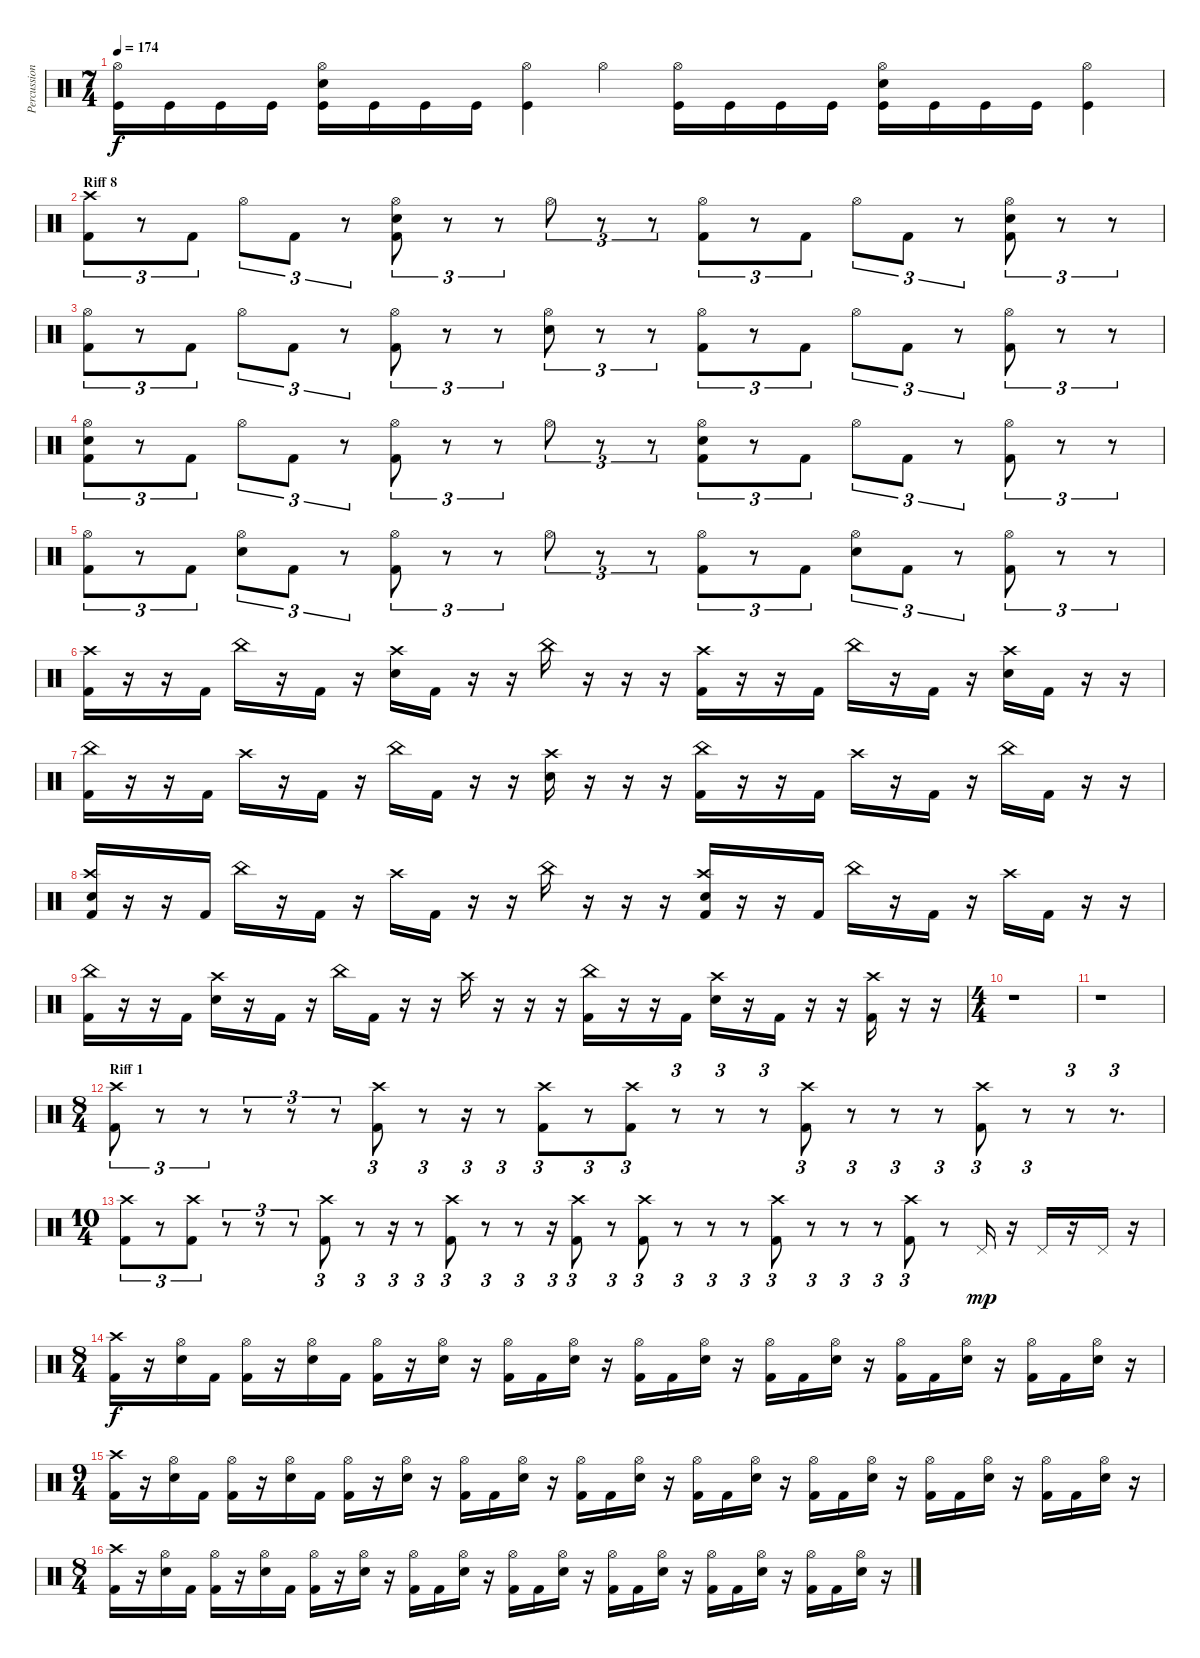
\track ("Percussion" "Percussion") {instrument percussion}
\staff {score}
\articulation defaults
\ts (7 4)
\tempo 174
\clef neutral
\ks c
("Hi-Hat (open)" "Kick (hit)").16{dy f} "Kick (hit)".16 "Kick (hit)".16 "Kick (hit)".16 ("Hi-Hat (open)" "Electric Snare (hit)" "Kick (hit)").16 "Kick (hit)".16 "Kick (hit)".16 "Kick (hit)".16 ("Hi-Hat (open)" "Kick (hit)").4 "Hi-Hat (open)".4 ("Hi-Hat (open)" "Kick (hit)").16 "Kick (hit)".16 "Kick (hit)".16 "Kick (hit)".16 ("Hi-Hat (open)" "Electric Snare (hit)" "Kick (hit)").16 "Kick (hit)".16 "Kick (hit)".16 "Kick (hit)".16 ("Hi-Hat (open)" "Kick (hit)").4 |
\section ("" "Riff 8")
("Crash high (hit)" "Kick (hit) 2").8{tu (3 2)} r.8{tu (3 2)} "Kick (hit) 2".8{tu (3 2)} "Hi-Hat (open)".8{tu (3 2)} "Kick (hit) 2".8{tu (3 2)} r.8{tu (3 2)} ("Hi-Hat (open)" "Electric Snare (hit)" "Kick (hit) 2").8{tu (3 2)} r.8{tu (3 2)} r.8{tu (3 2)} "Hi-Hat (open)".8{tu (3 2)} r.8{tu (3 2)} r.8{tu (3 2)} ("Hi-Hat (open)" "Kick (hit) 2").8{tu (3 2)} r.8{tu (3 2)} "Kick (hit) 2".8{tu (3 2)} "Hi-Hat (open)".8{tu (3 2)} "Kick (hit) 2".8{tu (3 2)} r.8{tu (3 2)} ("Hi-Hat (open)" "Electric Snare (hit)" "Kick (hit) 2").8{tu (3 2)} r.8{tu (3 2)} r.8{tu (3 2)} |
("Hi-Hat (open)" "Kick (hit) 2").8{tu (3 2)} r.8{tu (3 2)} "Kick (hit) 2".8{tu (3 2)} "Hi-Hat (open)".8{tu (3 2)} "Kick (hit) 2".8{tu (3 2)} r.8{tu (3 2)} ("Hi-Hat (open)" "Kick (hit) 2").8{tu (3 2)} r.8{tu (3 2)} r.8{tu (3 2)} ("Hi-Hat (open)" "Electric Snare (hit)").8{tu (3 2)} r.8{tu (3 2)} r.8{tu (3 2)} ("Hi-Hat (open)" "Kick (hit) 2").8{tu (3 2)} r.8{tu (3 2)} "Kick (hit) 2".8{tu (3 2)} "Hi-Hat (open)".8{tu (3 2)} "Kick (hit) 2".8{tu (3 2)} r.8{tu (3 2)} ("Hi-Hat (open)" "Kick (hit) 2").8{tu (3 2)} r.8{tu (3 2)} r.8{tu (3 2)} |
("Hi-Hat (open)" "Electric Snare (hit)" "Kick (hit) 2").8{tu (3 2)} r.8{tu (3 2)} "Kick (hit) 2".8{tu (3 2)} "Hi-Hat (open)".8{tu (3 2)} "Kick (hit) 2".8{tu (3 2)} r.8{tu (3 2)} ("Hi-Hat (open)" "Kick (hit) 2").8{tu (3 2)} r.8{tu (3 2)} r.8{tu (3 2)} "Hi-Hat (open)".8{tu (3 2)} r.8{tu (3 2)} r.8{tu (3 2)} ("Hi-Hat (open)" "Electric Snare (hit)" "Kick (hit) 2").8{tu (3 2)} r.8{tu (3 2)} "Kick (hit) 2".8{tu (3 2)} "Hi-Hat (open)".8{tu (3 2)} "Kick (hit) 2".8{tu (3 2)} r.8{tu (3 2)} ("Hi-Hat (open)" "Kick (hit) 2").8{tu (3 2)} r.8{tu (3 2)} r.8{tu (3 2)} |
("Hi-Hat (open)" "Kick (hit) 2").8{tu (3 2)} r.8{tu (3 2)} "Kick (hit) 2".8{tu (3 2)} ("Hi-Hat (open)" "Electric Snare (hit)").8{tu (3 2)} "Kick (hit) 2".8{tu (3 2)} r.8{tu (3 2)} ("Hi-Hat (open)" "Kick (hit) 2").8{tu (3 2)} r.8{tu (3 2)} r.8{tu (3 2)} "Hi-Hat (open)".8{tu (3 2)} r.8{tu (3 2)} r.8{tu (3 2)} ("Hi-Hat (open)" "Kick (hit) 2").8{tu (3 2)} r.8{tu (3 2)} "Kick (hit) 2".8{tu (3 2)} ("Hi-Hat (open)" "Electric Snare (hit)").8{tu (3 2)} "Kick (hit) 2".8{tu (3 2)} r.8{tu (3 2)} ("Hi-Hat (open)" "Kick (hit) 2").8{tu (3 2)} r.8{tu (3 2)} r.8{tu (3 2)} |
("Crash high (hit)" "Kick (hit) 2").16 r.16 r.16 "Kick (hit) 2".16 "China (hit)".16 r.16 "Kick (hit) 2".16 r.16 ("Crash high (hit)" "Electric Snare (hit)").16 "Kick (hit) 2".16 r.16 r.16 "China (hit)".16 r.16 r.16 r.16 ("Crash high (hit)" "Kick (hit) 2").16 r.16 r.16 "Kick (hit) 2".16 "China (hit)".16 r.16 "Kick (hit) 2".16 r.16 ("Crash high (hit)" "Electric Snare (hit)").16 "Kick (hit) 2".16 r.16 r.16 |
("China (hit)" "Kick (hit) 2").16 r.16 r.16 "Kick (hit) 2".16 "Crash high (hit)".16 r.16 "Kick (hit) 2".16 r.16 "China (hit)".16 "Kick (hit) 2".16 r.16 r.16 ("Crash high (hit)" "Electric Snare (hit)").16 r.16 r.16 r.16 ("China (hit)" "Kick (hit) 2").16 r.16 r.16 "Kick (hit) 2".16 "Crash high (hit)".16 r.16 "Kick (hit) 2".16 r.16 "China (hit)".16 "Kick (hit) 2".16 r.16 r.16 |
("Crash high (hit)" "Electric Snare (hit)" "Kick (hit) 2").16 r.16 r.16 "Kick (hit) 2".16 "China (hit)".16 r.16 "Kick (hit) 2".16 r.16 "Crash high (hit)".16 "Kick (hit) 2".16 r.16 r.16 "China (hit)".16 r.16 r.16 r.16 ("Crash high (hit)" "Electric Snare (hit)" "Kick (hit) 2").16 r.16 r.16 "Kick (hit) 2".16 "China (hit)".16 r.16 "Kick (hit) 2".16 r.16 "Crash high (hit)".16 "Kick (hit) 2".16 r.16 r.16 |
("China (hit)" "Kick (hit) 2").16 r.16 r.16 "Kick (hit) 2".16 ("Crash high (hit)" "Electric Snare (hit)").16 r.16 "Kick (hit) 2".16 r.16 "China (hit)".16 "Kick (hit) 2".16 r.16 r.16 "Crash high (hit)".16 r.16 r.16 r.16 ("China (hit)" "Kick (hit) 2").16 r.16 r.16 "Kick (hit) 2".16 ("Crash high (hit)" "Electric Snare (hit)").16 r.16 "Kick (hit) 2".16 r.16 r.16 ("Crash high (hit)" "Kick (hit) 2").16 r.16 r.16 |
\ts (4 4)
r.1 |
r.1 |
\ts (8 4)
\section ("" "Riff 1")
("Crash high (hit)" "Kick (hit) 2").8{tu (3 2)} r.8{tu (3 2)} r.8{tu (3 2)} r.8{tu (3 2)} r.8{tu (3 2)} r.8{tu (3 2)} ("Crash high (hit)" "Kick (hit) 2").8{tu (3 2)} r.8{tu (3 2)} r.16{tu (3 2)} r.8{tu (3 2)} ("Crash high (hit)" "Kick (hit) 2").8{tu (3 2)} r.8{tu (3 2)} ("Crash high (hit)" "Kick (hit) 2").8{tu (3 2)} r.8{tu (3 2)} r.8{tu (3 2)} r.8{tu (3 2)} ("Crash high (hit)" "Kick (hit) 2").8{tu (3 2)} r.8{tu (3 2)} r.8{tu (3 2)} r.8{tu (3 2)} ("Crash high (hit)" "Kick (hit) 2").8{tu (3 2)} r.8{tu (3 2)} r.8{tu (3 2)} r.8{d tu (3 2)} |
\ts (10 4)
("Crash high (hit)" "Kick (hit) 2").8{tu (3 2)} r.8{tu (3 2)} ("Crash high (hit)" "Kick (hit) 2").8{tu (3 2)} r.8{tu (3 2)} r.8{tu (3 2)} r.8{tu (3 2)} ("Crash high (hit)" "Kick (hit) 2").8{tu (3 2)} r.8{tu (3 2)} r.16{tu (3 2)} r.8{tu (3 2)} ("Crash high (hit)" "Kick (hit) 2").8{tu (3 2)} r.8{tu (3 2)} r.8{tu (3 2)} r.16{tu (3 2)} ("Crash high (hit)" "Kick (hit) 2").8{tu (3 2)} r.8{tu (3 2)} ("Crash high (hit)" "Kick (hit) 2").8{tu (3 2)} r.8{tu (3 2)} r.8{tu (3 2)} r.8{tu (3 2)} ("Crash high (hit)" "Kick (hit) 2").8{tu (3 2)} r.8{tu (3 2)} r.8{tu (3 2)} r.8{tu (3 2)} ("Crash high (hit)" "Kick (hit) 2").8{tu (3 2)} r.8 "Pedal Hi-Hat (hit)".16{dy mp} r.16 "Pedal Hi-Hat (hit)".16 r.16 "Pedal Hi-Hat (hit)".16 r.16 |
\ts (8 4)
("Crash high (hit)" "Kick (hit) 2").16{dy f} r.16 ("Hi-Hat (open)" "Electric Snare (hit)").16 "Kick (hit) 2".16 ("Hi-Hat (open)" "Kick (hit) 2").16 r.16 ("Hi-Hat (open)" "Electric Snare (hit)").16 "Kick (hit) 2".16 ("Hi-Hat (open)" "Kick (hit) 2").16 r.16 ("Hi-Hat (open)" "Electric Snare (hit)").16 r.16 ("Hi-Hat (open)" "Kick (hit) 2").16 "Kick (hit) 2".16 ("Hi-Hat (open)" "Electric Snare (hit)").16 r.16 ("Hi-Hat (open)" "Kick (hit) 2").16 "Kick (hit) 2".16 ("Hi-Hat (open)" "Electric Snare (hit)").16 r.16 ("Hi-Hat (open)" "Kick (hit) 2").16 "Kick (hit) 2".16 ("Hi-Hat (open)" "Electric Snare (hit)").16 r.16 ("Hi-Hat (open)" "Kick (hit) 2").16 "Kick (hit) 2".16 ("Hi-Hat (open)" "Electric Snare (hit)").16 r.16 ("Hi-Hat (open)" "Kick (hit) 2").16 "Kick (hit) 2".16 ("Hi-Hat (open)" "Electric Snare (hit)").16 r.16 |
\ts (9 4)
("Crash high (hit)" "Kick (hit) 2").16 r.16 ("Hi-Hat (open)" "Electric Snare (hit)").16 "Kick (hit) 2".16 ("Hi-Hat (open)" "Kick (hit) 2").16 r.16 ("Hi-Hat (open)" "Electric Snare (hit)").16 "Kick (hit) 2".16 ("Hi-Hat (open)" "Kick (hit) 2").16 r.16 ("Hi-Hat (open)" "Electric Snare (hit)").16 r.16 ("Hi-Hat (open)" "Kick (hit) 2").16 "Kick (hit) 2".16 ("Hi-Hat (open)" "Electric Snare (hit)").16 r.16 ("Hi-Hat (open)" "Kick (hit) 2").16 "Kick (hit) 2".16 ("Hi-Hat (open)" "Electric Snare (hit)").16 r.16 ("Hi-Hat (open)" "Kick (hit) 2").16 "Kick (hit) 2".16 ("Hi-Hat (open)" "Electric Snare (hit)").16 r.16 ("Hi-Hat (open)" "Kick (hit) 2").16 "Kick (hit) 2".16 ("Hi-Hat (open)" "Electric Snare (hit)").16 r.16 ("Hi-Hat (open)" "Kick (hit) 2").16 "Kick (hit) 2".16 ("Hi-Hat (open)" "Electric Snare (hit)").16 r.16 ("Hi-Hat (open)" "Kick (hit) 2").16 "Kick (hit) 2".16 ("Hi-Hat (open)" "Electric Snare (hit)").16 r.16 |
\ts (8 4)
("Crash high (hit)" "Kick (hit) 2").16 r.16 ("Hi-Hat (open)" "Electric Snare (hit)").16 "Kick (hit) 2".16 ("Hi-Hat (open)" "Kick (hit) 2").16 r.16 ("Hi-Hat (open)" "Electric Snare (hit)").16 "Kick (hit) 2".16 ("Hi-Hat (open)" "Kick (hit) 2").16 r.16 ("Hi-Hat (open)" "Electric Snare (hit)").16 r.16 ("Hi-Hat (open)" "Kick (hit) 2").16 "Kick (hit) 2".16 ("Hi-Hat (open)" "Electric Snare (hit)").16 r.16 ("Hi-Hat (open)" "Kick (hit) 2").16 "Kick (hit) 2".16 ("Hi-Hat (open)" "Electric Snare (hit)").16 r.16 ("Hi-Hat (open)" "Kick (hit) 2").16 "Kick (hit) 2".16 ("Hi-Hat (open)" "Electric Snare (hit)").16 r.16 ("Hi-Hat (open)" "Kick (hit) 2").16 "Kick (hit) 2".16 ("Hi-Hat (open)" "Electric Snare (hit)").16 r.16 ("Hi-Hat (open)" "Kick (hit) 2").16 "Kick (hit) 2".16 ("Hi-Hat (open)" "Electric Snare (hit)").16 r.16
